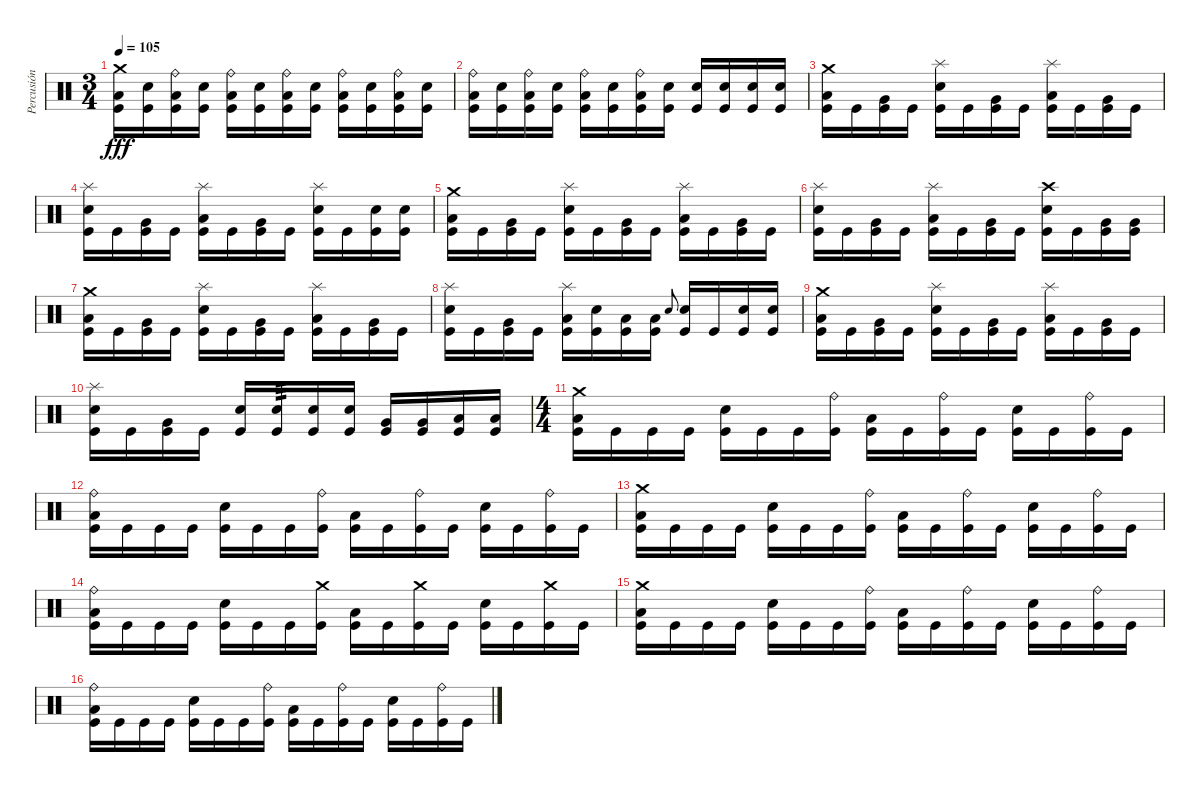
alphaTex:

\track ("Percusión" "Percusión") {instrument percussion}
\staff {score}
\articulation defaults
\ts (3 4)
\tempo 105
\clef neutral
\ks c
("Crash medium (hit)" "Low Floor Tom (hit)" "Kick (hit)").16{dy fff} ("Snare (hit) 2" "Kick (hit)").16 ("Ride (bell)" "Low Floor Tom (hit)" "Kick (hit)").16 ("Snare (hit) 2" "Kick (hit)").16 ("Ride (bell)" "Low Floor Tom (hit)" "Kick (hit)").16 ("Snare (hit) 2" "Kick (hit)").16 ("Ride (bell)" "Low Floor Tom (hit)" "Kick (hit)").16 ("Snare (hit) 2" "Kick (hit)").16 ("Ride (bell)" "Low Floor Tom (hit)" "Kick (hit)").16 ("Snare (hit) 2" "Kick (hit)").16 ("Ride (bell)" "Low Floor Tom (hit)" "Kick (hit)").16 ("Snare (hit) 2" "Kick (hit)").16 |
("Ride (bell)" "Low Floor Tom (hit)" "Kick (hit)").16 ("Snare (hit) 2" "Kick (hit)").16 ("Ride (bell)" "Low Floor Tom (hit)" "Kick (hit)").16 ("Snare (hit) 2" "Kick (hit)").16 ("Ride (bell)" "Low Floor Tom (hit)" "Kick (hit)").16 ("Snare (hit) 2" "Kick (hit)").16 ("Ride (bell)" "Low Floor Tom (hit)" "Kick (hit)").16 ("Snare (hit) 2" "Kick (hit)").16 ("Snare (hit) 2" "Kick (hit)").16 ("Snare (hit) 2" "Kick (hit)").16 ("Snare (hit) 2" "Kick (hit)").16 ("Snare (hit) 2" "Kick (hit)").16 |
("Crash medium (hit)" "Low Floor Tom (hit)" "Kick (hit)").16 "Kick (hit)".16 ("Very Low Tom (hit)" "Kick (hit)").16 "Kick (hit)".16 ("Splash (hit)" "Snare (hit) 2" "Kick (hit)").16 "Kick (hit)".16 ("Very Low Tom (hit)" "Kick (hit)").16 "Kick (hit)".16 ("Splash (hit)" "Low Floor Tom (hit)" "Kick (hit)").16 "Kick (hit)".16 ("Very Low Tom (hit)" "Kick (hit)").16 "Kick (hit)".16 |
("Splash (hit)" "Snare (hit) 2" "Kick (hit)").16 "Kick (hit)".16 ("Very Low Tom (hit)" "Kick (hit)").16 "Kick (hit)".16 ("Splash (hit)" "Low Floor Tom (hit)" "Kick (hit)").16 "Kick (hit)".16 ("Very Low Tom (hit)" "Kick (hit)").16 "Kick (hit)".16 ("Splash (hit)" "Snare (hit) 2" "Kick (hit)").16 "Kick (hit)".16 ("Snare (hit) 2" "Kick (hit)").16 ("Snare (hit) 2" "Kick (hit)").16 |
("Crash medium (hit)" "Low Floor Tom (hit)" "Kick (hit)").16 "Kick (hit)".16 ("Very Low Tom (hit)" "Kick (hit)").16 "Kick (hit)".16 ("Splash (hit)" "Snare (hit) 2" "Kick (hit)").16 "Kick (hit)".16 ("Very Low Tom (hit)" "Kick (hit)").16 "Kick (hit)".16 ("Splash (hit)" "Low Floor Tom (hit)" "Kick (hit)").16 "Kick (hit)".16 ("Very Low Tom (hit)" "Kick (hit)").16 "Kick (hit)".16 |
("Splash (hit)" "Snare (hit) 2" "Kick (hit)").16 "Kick (hit)".16 ("Very Low Tom (hit)" "Kick (hit)").16 "Kick (hit)".16 ("Splash (hit)" "Low Floor Tom (hit)" "Kick (hit)").16 "Kick (hit)".16 ("Very Low Tom (hit)" "Kick (hit)").16 "Kick (hit)".16 ("Crash high (hit)" "Snare (hit) 2" "Kick (hit)").16 "Kick (hit)".16 ("Very Low Tom (hit)" "Kick (hit)").16 ("Very Low Tom (hit)" "Kick (hit)").16 |
("Crash medium (hit)" "Low Floor Tom (hit)" "Kick (hit)").16 "Kick (hit)".16 ("Very Low Tom (hit)" "Kick (hit)").16 "Kick (hit)".16 ("Splash (hit)" "Snare (hit) 2" "Kick (hit)").16 "Kick (hit)".16 ("Very Low Tom (hit)" "Kick (hit)").16 "Kick (hit)".16 ("Splash (hit)" "Low Floor Tom (hit)" "Kick (hit)").16 "Kick (hit)".16 ("Very Low Tom (hit)" "Kick (hit)").16 "Kick (hit)".16 |
("Splash (hit)" "Snare (hit) 2" "Kick (hit)").16 "Kick (hit)".16 ("Very Low Tom (hit)" "Kick (hit)").16 "Kick (hit)".16 ("Splash (hit)" "Low Floor Tom (hit)" "Kick (hit)").16 ("Snare (hit) 2" "Kick (hit)").16 ("Low Floor Tom (hit)" "Kick (hit)").16 ("Low Floor Tom (hit)" "Kick (hit)").16 "Snare (hit) 2".8{gr onbeat} ("Snare (hit) 2" "Kick (hit)").16 "Kick (hit)".16 ("Snare (hit) 2" "Kick (hit)").16 ("Snare (hit) 2" "Kick (hit)").16 |
("Crash medium (hit)" "Low Floor Tom (hit)" "Kick (hit)").16 "Kick (hit)".16 ("Very Low Tom (hit)" "Kick (hit)").16 "Kick (hit)".16 ("Splash (hit)" "Snare (hit) 2" "Kick (hit)").16 "Kick (hit)".16 ("Very Low Tom (hit)" "Kick (hit)").16 "Kick (hit)".16 ("Splash (hit)" "Low Floor Tom (hit)" "Kick (hit)").16 "Kick (hit)".16 ("Very Low Tom (hit)" "Kick (hit)").16 "Kick (hit)".16 |
("Splash (hit)" "Snare (hit) 2" "Kick (hit)").16 "Kick (hit)".16 ("Very Low Tom (hit)" "Kick (hit)").16 "Kick (hit)".16 ("Snare (hit) 2" "Kick (hit)").16 ("Snare (hit) 2" "Kick (hit)").16{tp 3} ("Snare (hit) 2" "Kick (hit)").16 ("Snare (hit) 2" "Kick (hit)").16 ("Very Low Tom (hit)" "Kick (hit)").16 ("Very Low Tom (hit)" "Kick (hit)").16 ("Low Floor Tom (hit)" "Kick (hit)").16 ("Low Floor Tom (hit)" "Kick (hit)").16 |
\ts (4 4)
("Crash medium (hit)" "Low Floor Tom (hit)" "Kick (hit)").16 "Kick (hit)".16 "Kick (hit)".16 "Kick (hit)".16 ("Snare (hit) 2" "Kick (hit)").16 "Kick (hit)".16 "Kick (hit)".16 ("Ride (bell)" "Kick (hit)").16 ("Low Floor Tom (hit)" "Kick (hit)").16 "Kick (hit)".16 ("Ride (bell)" "Kick (hit)").16 "Kick (hit)".16 ("Snare (hit) 2" "Kick (hit)").16 "Kick (hit)".16 ("Ride (bell)" "Kick (hit)").16 "Kick (hit)".16 |
("Ride (bell)" "Low Floor Tom (hit)" "Kick (hit)").16 "Kick (hit)".16 "Kick (hit)".16 "Kick (hit)".16 ("Snare (hit) 2" "Kick (hit)").16 "Kick (hit)".16 "Kick (hit)".16 ("Ride (bell)" "Kick (hit)").16 ("Low Floor Tom (hit)" "Kick (hit)").16 "Kick (hit)".16 ("Ride (bell)" "Kick (hit)").16 "Kick (hit)".16 ("Snare (hit) 2" "Kick (hit)").16 "Kick (hit)".16 ("Ride (bell)" "Kick (hit)").16 "Kick (hit)".16 |
("Crash medium (hit)" "Low Floor Tom (hit)" "Kick (hit)").16 "Kick (hit)".16 "Kick (hit)".16 "Kick (hit)".16 ("Snare (hit) 2" "Kick (hit)").16 "Kick (hit)".16 "Kick (hit)".16 ("Ride (bell)" "Kick (hit)").16 ("Low Floor Tom (hit)" "Kick (hit)").16 "Kick (hit)".16 ("Ride (bell)" "Kick (hit)").16 "Kick (hit)".16 ("Snare (hit) 2" "Kick (hit)").16 "Kick (hit)".16 ("Ride (bell)" "Kick (hit)").16 "Kick (hit)".16 |
("Ride (bell)" "Low Floor Tom (hit)" "Kick (hit)").16 "Kick (hit)".16 "Kick (hit)".16 "Kick (hit)".16 ("Snare (hit) 2" "Kick (hit)").16 "Kick (hit)".16 "Kick (hit)".16 ("Crash medium (hit)" "Kick (hit)").16 ("Low Floor Tom (hit)" "Kick (hit)").16 "Kick (hit)".16 ("Crash medium (hit)" "Kick (hit)").16 "Kick (hit)".16 ("Snare (hit) 2" "Kick (hit)").16 "Kick (hit)".16 ("Crash medium (hit)" "Kick (hit)").16 "Kick (hit)".16 |
("Crash medium (hit)" "Low Floor Tom (hit)" "Kick (hit)").16 "Kick (hit)".16 "Kick (hit)".16 "Kick (hit)".16 ("Snare (hit) 2" "Kick (hit)").16 "Kick (hit)".16 "Kick (hit)".16 ("Ride (bell)" "Kick (hit)").16 ("Low Floor Tom (hit)" "Kick (hit)").16 "Kick (hit)".16 ("Ride (bell)" "Kick (hit)").16 "Kick (hit)".16 ("Snare (hit) 2" "Kick (hit)").16 "Kick (hit)".16 ("Ride (bell)" "Kick (hit)").16 "Kick (hit)".16 |
("Ride (bell)" "Low Floor Tom (hit)" "Kick (hit)").16 "Kick (hit)".16 "Kick (hit)".16 "Kick (hit)".16 ("Snare (hit) 2" "Kick (hit)").16 "Kick (hit)".16 "Kick (hit)".16 ("Ride (bell)" "Kick (hit)").16 ("Low Floor Tom (hit)" "Kick (hit)").16 "Kick (hit)".16 ("Ride (bell)" "Kick (hit)").16 "Kick (hit)".16 ("Snare (hit) 2" "Kick (hit)").16 "Kick (hit)".16 ("Ride (bell)" "Kick (hit)").16 "Kick (hit)".16
